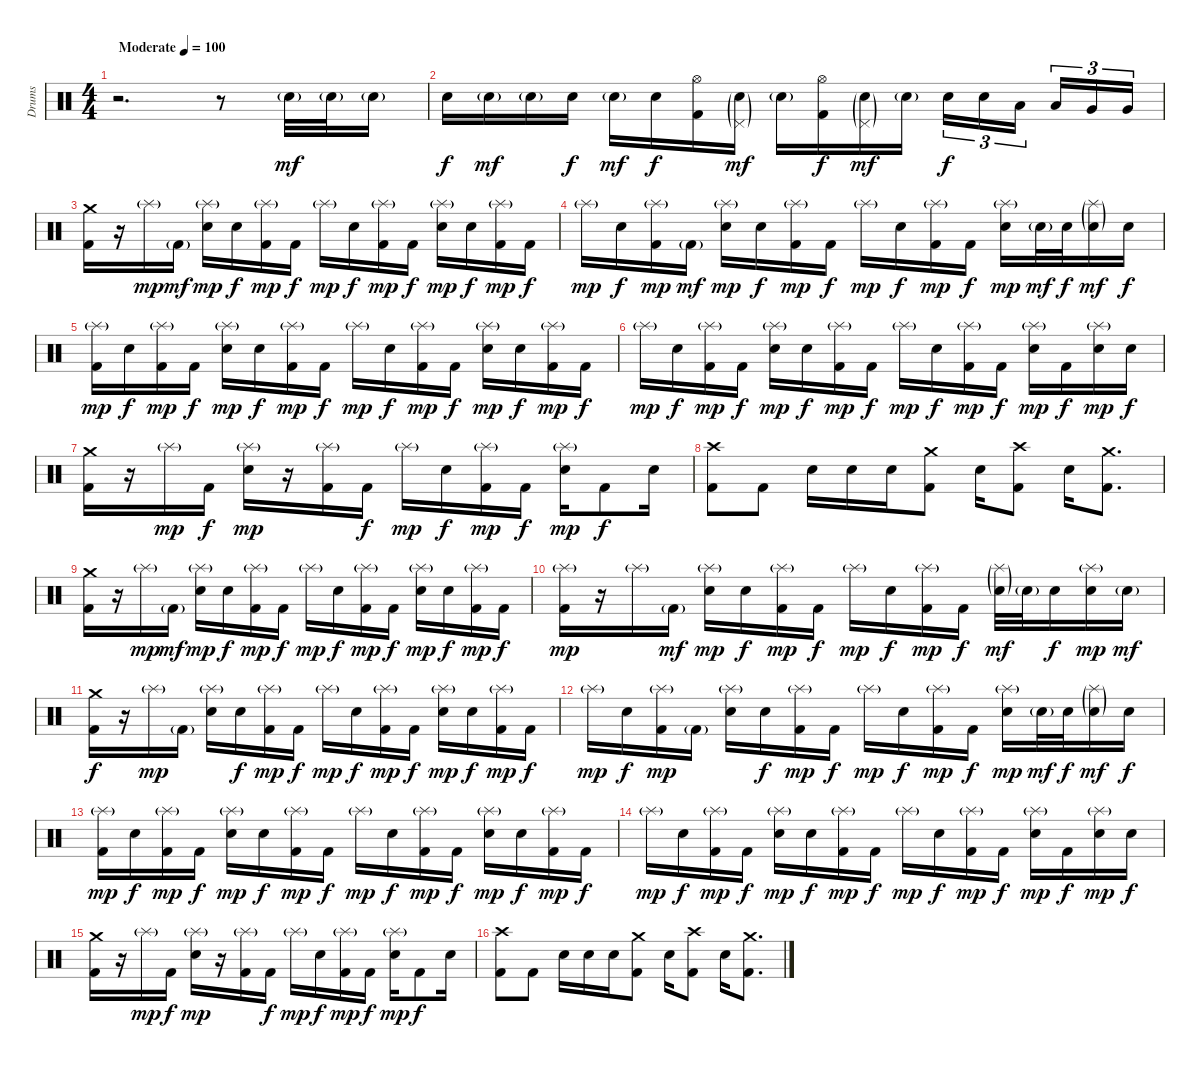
\track ("Drums" "Drums") {instrument percussion}
\staff {score}
\articulation defaults
\ts (4 4)
\tempo (100 "Moderate")
\clef neutral
\ks c
r.2{d dy mf} r.8 "Electric Snare (hit)"{g}.32 "Electric Snare (hit)"{g}.32 "Electric Snare (hit)"{g}.16 |
"Electric Snare (hit)".16{dy f} "Electric Snare (hit)"{g}.16{dy mf} "Electric Snare (hit)"{g}.16 "Electric Snare (hit)".16{dy f} "Electric Snare (hit)"{g}.16{dy mf} "Electric Snare (hit)".16{dy f} ("Hi-Hat (open)" "Kick (hit) 2").16 ("Pedal Hi-Hat (hit)"{g} "Electric Snare (hit)"{g}).16{dy mf} "Electric Snare (hit)"{g}.16 ("Hi-Hat (open)" "Kick (hit) 2").16{dy f} ("Pedal Hi-Hat (hit)"{g} "Electric Snare (hit)"{g}).16{dy mf} "Electric Snare (hit)"{g}.16 "Electric Snare (hit)".16{tu (3 2) dy f} "Electric Snare (hit)".16{tu (3 2)} "Low Tom (hit)".16{tu (3 2) beam splitsecondary} "Low Tom (hit)".16{tu (3 2)} "Very Low Tom (hit)".16{tu (3 2)} "Very Low Tom (hit)".16{tu (3 2)} |
("Crash medium (hit)" "Kick (hit) 2").16 r.16 "Splash (hit)"{g}.16{dy mp} "Kick (hit) 2"{g}.16{dy mf} ("Splash (hit)"{g} "Electric Snare (hit)").16{dy mp} "Electric Snare (hit)".16{dy f} ("Splash (hit)"{g} "Kick (hit) 2").16{dy mp} "Kick (hit) 2".16{dy f} "Splash (hit)"{g}.16{dy mp} "Electric Snare (hit)".16{dy f} ("Splash (hit)"{g} "Kick (hit) 2").16{dy mp} "Kick (hit) 2".16{dy f} ("Splash (hit)"{g} "Electric Snare (hit)").16{dy mp} "Electric Snare (hit)".16{dy f} ("Splash (hit)"{g} "Kick (hit) 2").16{dy mp} "Kick (hit) 2".16{dy f} |
"Splash (hit)"{g}.16{dy mp} "Electric Snare (hit)".16{dy f} ("Splash (hit)"{g} "Kick (hit) 2").16{dy mp} "Kick (hit) 2"{g}.16{dy mf} ("Splash (hit)"{g} "Electric Snare (hit)").16{dy mp} "Electric Snare (hit)".16{dy f} ("Splash (hit)"{g} "Kick (hit) 2").16{dy mp} "Kick (hit) 2".16{dy f} "Splash (hit)"{g}.16{dy mp} "Electric Snare (hit)".16{dy f} ("Splash (hit)"{g} "Kick (hit) 2").16{dy mp} "Kick (hit) 2".16{dy f} ("Splash (hit)"{g} "Electric Snare (hit)").16{dy mp} "Electric Snare (hit)"{g}.32{dy mf} "Electric Snare (hit)".32{dy f} ("Splash (hit)"{g} "Electric Snare (hit)"{g}).16{dy mf} "Electric Snare (hit)".16{dy f} |
("Splash (hit)"{g} "Kick (hit) 2").16{dy mp} "Electric Snare (hit)".16{dy f} ("Splash (hit)"{g} "Kick (hit) 2").16{dy mp} "Kick (hit) 2".16{dy f} ("Splash (hit)"{g} "Electric Snare (hit)").16{dy mp} "Electric Snare (hit)".16{dy f} ("Splash (hit)"{g} "Kick (hit) 2").16{dy mp} "Kick (hit) 2".16{dy f} "Splash (hit)"{g}.16{dy mp} "Electric Snare (hit)".16{dy f} ("Splash (hit)"{g} "Kick (hit) 2").16{dy mp} "Kick (hit) 2".16{dy f} ("Splash (hit)"{g} "Electric Snare (hit)").16{dy mp} "Electric Snare (hit)".16{dy f} ("Splash (hit)"{g} "Kick (hit) 2").16{dy mp} "Kick (hit) 2".16{dy f} |
"Splash (hit)"{g}.16{dy mp} "Electric Snare (hit)".16{dy f} ("Splash (hit)"{g} "Kick (hit) 2").16{dy mp} "Kick (hit) 2".16{dy f} ("Splash (hit)"{g} "Electric Snare (hit)").16{dy mp} "Electric Snare (hit)".16{dy f} ("Splash (hit)"{g} "Kick (hit) 2").16{dy mp} "Kick (hit) 2".16{dy f} "Splash (hit)"{g}.16{dy mp} "Electric Snare (hit)".16{dy f} ("Splash (hit)"{g} "Kick (hit) 2").16{dy mp} "Kick (hit) 2".16{dy f} ("Splash (hit)"{g} "Electric Snare (hit)").16{dy mp} "Kick (hit) 2".16{dy f} ("Splash (hit)"{g} "Electric Snare (hit)").16{dy mp} "Electric Snare (hit)".16{dy f} |
("Crash medium (hit)" "Kick (hit) 2").16 r.16 "Splash (hit)"{g}.16{dy mp} "Kick (hit) 2".16{dy f} ("Splash (hit)"{g} "Electric Snare (hit)").16{dy mp} r.16 ("Splash (hit)"{g} "Kick (hit) 2").16 "Kick (hit) 2".16{dy f} "Splash (hit)"{g}.16{dy mp} "Electric Snare (hit)".16{dy f} ("Splash (hit)"{g} "Kick (hit) 2").16{dy mp} "Kick (hit) 2".16{dy f} ("Splash (hit)"{g} "Electric Snare (hit)").16{dy mp} "Kick (hit) 2".8{dy f} "Electric Snare (hit)".16 |
("Crash high (hit)" "Kick (hit) 2").8 "Kick (hit) 2".8 "Electric Snare (hit)".16 "Electric Snare (hit)".16 "Electric Snare (hit)".16 ("Crash medium (hit)" "Kick (hit) 2").8 "Electric Snare (hit)".16 ("Crash high (hit)" "Kick (hit) 2").8 "Electric Snare (hit)".16 ("Crash medium (hit)" "Kick (hit) 2").8{d} |
("Crash medium (hit)" "Kick (hit) 2").16 r.16 "Splash (hit)"{g}.16{dy mp} "Kick (hit) 2"{g}.16{dy mf} ("Splash (hit)"{g} "Electric Snare (hit)").16{dy mp} "Electric Snare (hit)".16{dy f} ("Splash (hit)"{g} "Kick (hit) 2").16{dy mp} "Kick (hit) 2".16{dy f} "Splash (hit)"{g}.16{dy mp} "Electric Snare (hit)".16{dy f} ("Splash (hit)"{g} "Kick (hit) 2").16{dy mp} "Kick (hit) 2".16{dy f} ("Splash (hit)"{g} "Electric Snare (hit)").16{dy mp} "Electric Snare (hit)".16{dy f} ("Splash (hit)"{g} "Kick (hit) 2").16{dy mp} "Kick (hit) 2".16{dy f} |
("Splash (hit)"{g} "Kick (hit) 2").16{dy mp} r.16 "Splash (hit)"{g}.16 "Kick (hit) 2"{g}.16{dy mf} ("Splash (hit)"{g} "Electric Snare (hit)").16{dy mp} "Electric Snare (hit)".16{dy f} ("Splash (hit)"{g} "Kick (hit) 2").16{dy mp} "Kick (hit) 2".16{dy f} "Splash (hit)"{g}.16{dy mp} "Electric Snare (hit)".16{dy f} ("Splash (hit)"{g} "Kick (hit) 2").16{dy mp} "Kick (hit) 2".16{dy f} ("Splash (hit)"{g} "Electric Snare (hit)"{g}).32{dy mf} "Electric Snare (hit)"{g}.32 "Electric Snare (hit)".16{dy f} ("Splash (hit)"{g} "Electric Snare (hit)").16{dy mp} "Electric Snare (hit)"{g}.16{dy mf} |
("Crash medium (hit)" "Kick (hit) 2").16{dy f} r.16 "Splash (hit)"{g}.16{dy mp} "Kick (hit) 2"{g}.16 ("Splash (hit)"{g} "Electric Snare (hit)").16 "Electric Snare (hit)".16{dy f} ("Splash (hit)"{g} "Kick (hit) 2").16{dy mp} "Kick (hit) 2".16{dy f} "Splash (hit)"{g}.16{dy mp} "Electric Snare (hit)".16{dy f} ("Splash (hit)"{g} "Kick (hit) 2").16{dy mp} "Kick (hit) 2".16{dy f} ("Splash (hit)"{g} "Electric Snare (hit)").16{dy mp} "Electric Snare (hit)".16{dy f} ("Splash (hit)"{g} "Kick (hit) 2").16{dy mp} "Kick (hit) 2".16{dy f} |
"Splash (hit)"{g}.16{dy mp} "Electric Snare (hit)".16{dy f} ("Splash (hit)"{g} "Kick (hit) 2").16{dy mp} "Kick (hit) 2"{g}.16 ("Splash (hit)"{g} "Electric Snare (hit)").16 "Electric Snare (hit)".16{dy f} ("Splash (hit)"{g} "Kick (hit) 2").16{dy mp} "Kick (hit) 2".16{dy f} "Splash (hit)"{g}.16{dy mp} "Electric Snare (hit)".16{dy f} ("Splash (hit)"{g} "Kick (hit) 2").16{dy mp} "Kick (hit) 2".16{dy f} ("Splash (hit)"{g} "Electric Snare (hit)").16{dy mp} "Electric Snare (hit)"{g}.32{dy mf} "Electric Snare (hit)".32{dy f} ("Splash (hit)"{g} "Electric Snare (hit)"{g}).16{dy mf} "Electric Snare (hit)".16{dy f} |
("Splash (hit)"{g} "Kick (hit) 2").16{dy mp} "Electric Snare (hit)".16{dy f} ("Splash (hit)"{g} "Kick (hit) 2").16{dy mp} "Kick (hit) 2".16{dy f} ("Splash (hit)"{g} "Electric Snare (hit)").16{dy mp} "Electric Snare (hit)".16{dy f} ("Splash (hit)"{g} "Kick (hit) 2").16{dy mp} "Kick (hit) 2".16{dy f} "Splash (hit)"{g}.16{dy mp} "Electric Snare (hit)".16{dy f} ("Splash (hit)"{g} "Kick (hit) 2").16{dy mp} "Kick (hit) 2".16{dy f} ("Splash (hit)"{g} "Electric Snare (hit)").16{dy mp} "Electric Snare (hit)".16{dy f} ("Splash (hit)"{g} "Kick (hit) 2").16{dy mp} "Kick (hit) 2".16{dy f} |
"Splash (hit)"{g}.16{dy mp} "Electric Snare (hit)".16{dy f} ("Splash (hit)"{g} "Kick (hit) 2").16{dy mp} "Kick (hit) 2".16{dy f} ("Splash (hit)"{g} "Electric Snare (hit)").16{dy mp} "Electric Snare (hit)".16{dy f} ("Splash (hit)"{g} "Kick (hit) 2").16{dy mp} "Kick (hit) 2".16{dy f} "Splash (hit)"{g}.16{dy mp} "Electric Snare (hit)".16{dy f} ("Splash (hit)"{g} "Kick (hit) 2").16{dy mp} "Kick (hit) 2".16{dy f} ("Splash (hit)"{g} "Electric Snare (hit)").16{dy mp} "Kick (hit) 2".16{dy f} ("Splash (hit)"{g} "Electric Snare (hit)").16{dy mp} "Electric Snare (hit)".16{dy f} |
("Crash medium (hit)" "Kick (hit) 2").16 r.16 "Splash (hit)"{g}.16{dy mp} "Kick (hit) 2".16{dy f} ("Splash (hit)"{g} "Electric Snare (hit)").16{dy mp} r.16 ("Splash (hit)"{g} "Kick (hit) 2").16 "Kick (hit) 2".16{dy f} "Splash (hit)"{g}.16{dy mp} "Electric Snare (hit)".16{dy f} ("Splash (hit)"{g} "Kick (hit) 2").16{dy mp} "Kick (hit) 2".16{dy f} ("Splash (hit)"{g} "Electric Snare (hit)").16{dy mp} "Kick (hit) 2".8{dy f} "Electric Snare (hit)".16 |
("Crash high (hit)" "Kick (hit) 2").8 "Kick (hit) 2".8 "Electric Snare (hit)".16 "Electric Snare (hit)".16 "Electric Snare (hit)".16 ("Crash medium (hit)" "Kick (hit) 2").8 "Electric Snare (hit)".16 ("Crash high (hit)" "Kick (hit) 2").8 "Electric Snare (hit)".16 ("Crash medium (hit)" "Kick (hit) 2").8{d}
